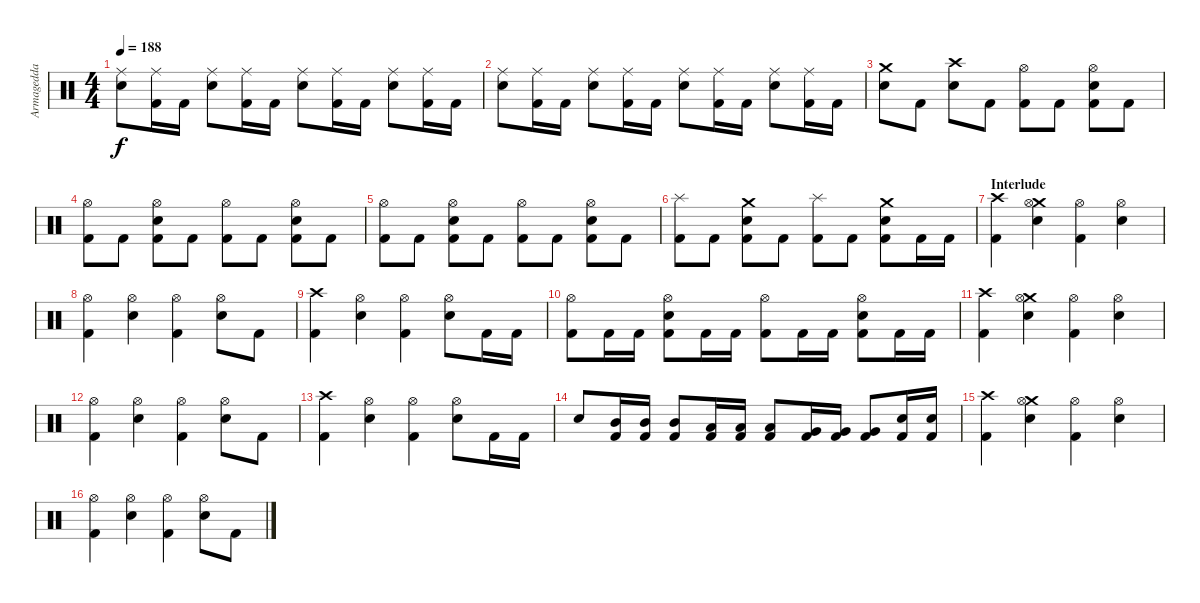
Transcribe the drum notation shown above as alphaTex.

\track ("Armagedda" "Armagedda") {instrument percussion}
\staff {score}
\articulation defaults
\ts (4 4)
\tempo 188
\clef neutral
\ks c
("Ride (middle)" "Electric Snare (hit)").8{dy f} ("Ride (middle)" "Kick (hit) 2").16 "Kick (hit) 2".16 ("Ride (middle)" "Electric Snare (hit)").8 ("Ride (middle)" "Kick (hit) 2").16 "Kick (hit) 2".16 ("Ride (middle)" "Electric Snare (hit)").8 ("Ride (middle)" "Kick (hit) 2").16 "Kick (hit) 2".16 ("Ride (middle)" "Electric Snare (hit)").8 ("Ride (middle)" "Kick (hit) 2").16 "Kick (hit) 2".16 |
("Ride (middle)" "Electric Snare (hit)").8 ("Ride (middle)" "Kick (hit) 2").16 "Kick (hit) 2".16 ("Ride (middle)" "Electric Snare (hit)").8 ("Ride (middle)" "Kick (hit) 2").16 "Kick (hit) 2".16 ("Ride (middle)" "Electric Snare (hit)").8 ("Ride (middle)" "Kick (hit) 2").16 "Kick (hit) 2".16 ("Ride (middle)" "Electric Snare (hit)").8 ("Ride (middle)" "Kick (hit) 2").16 "Kick (hit) 2".16 |
("Crash medium (hit)" "Electric Snare (hit)").8 "Kick (hit) 2".8 ("Crash high (hit)" "Electric Snare (hit)").8 "Kick (hit) 2".8 ("Hi-Hat (open)" "Kick (hit) 2").8 "Kick (hit) 2".8 ("Hi-Hat (open)" "Electric Snare (hit)" "Kick (hit) 2").8 "Kick (hit) 2".8 |
("Hi-Hat (open)" "Kick (hit) 2").8 "Kick (hit) 2".8 ("Hi-Hat (open)" "Electric Snare (hit)" "Kick (hit) 2").8 "Kick (hit) 2".8 ("Hi-Hat (open)" "Kick (hit) 2").8 "Kick (hit) 2".8 ("Hi-Hat (open)" "Electric Snare (hit)" "Kick (hit) 2").8 "Kick (hit) 2".8 |
("Hi-Hat (open)" "Kick (hit) 2").8 "Kick (hit) 2".8 ("Hi-Hat (open)" "Electric Snare (hit)" "Kick (hit) 2").8 "Kick (hit) 2".8 ("Hi-Hat (open)" "Kick (hit) 2").8 "Kick (hit) 2".8 ("Hi-Hat (open)" "Electric Snare (hit)" "Kick (hit) 2").8 "Kick (hit) 2".8 |
("Splash (hit)" "Kick (hit) 2").8 "Kick (hit) 2".8 ("Crash medium (hit)" "Electric Snare (hit)" "Kick (hit) 2").8 "Kick (hit) 2".8 ("Splash (hit)" "Kick (hit) 2").8 "Kick (hit) 2".8 ("Crash medium (hit)" "Electric Snare (hit)" "Kick (hit) 2").8 "Kick (hit) 2".16 "Kick (hit) 2".16 |
\section ("" "Interlude")
("Crash high (hit)" "Kick (hit) 2").4 ("Crash medium (hit)" "Hi-Hat (open)" "Electric Snare (hit)").4 ("Hi-Hat (open)" "Kick (hit) 2").4 ("Hi-Hat (open)" "Electric Snare (hit)").4 |
("Hi-Hat (open)" "Kick (hit) 2").4 ("Hi-Hat (open)" "Electric Snare (hit)").4 ("Hi-Hat (open)" "Kick (hit) 2").4 ("Hi-Hat (open)" "Electric Snare (hit)").8 "Kick (hit) 2".8 |
("Crash high (hit)" "Kick (hit) 2").4 ("Hi-Hat (open)" "Electric Snare (hit)").4 ("Hi-Hat (open)" "Kick (hit) 2").4 ("Hi-Hat (open)" "Electric Snare (hit)").8 "Kick (hit) 2".16 "Kick (hit) 2".16 |
("Hi-Hat (open)" "Kick (hit) 2").8 "Kick (hit) 2".16 "Kick (hit) 2".16 ("Hi-Hat (open)" "Electric Snare (hit)" "Kick (hit) 2").8 "Kick (hit) 2".16 "Kick (hit) 2".16 ("Hi-Hat (open)" "Kick (hit) 2").8 "Kick (hit) 2".16 "Kick (hit) 2".16 ("Hi-Hat (open)" "Electric Snare (hit)" "Kick (hit) 2").8 "Kick (hit) 2".16 "Kick (hit) 2".16 |
("Crash high (hit)" "Kick (hit) 2").4 ("Crash medium (hit)" "Hi-Hat (open)" "Electric Snare (hit)").4 ("Hi-Hat (open)" "Kick (hit) 2").4 ("Hi-Hat (open)" "Electric Snare (hit)").4 |
("Hi-Hat (open)" "Kick (hit) 2").4 ("Hi-Hat (open)" "Electric Snare (hit)").4 ("Hi-Hat (open)" "Kick (hit) 2").4 ("Hi-Hat (open)" "Electric Snare (hit)").8 "Kick (hit) 2".8 |
("Crash high (hit)" "Kick (hit) 2").4 ("Hi-Hat (open)" "Electric Snare (hit)").4 ("Hi-Hat (open)" "Kick (hit) 2").4 ("Hi-Hat (open)" "Electric Snare (hit)").8 "Kick (hit) 2".16 "Kick (hit) 2".16 |
"Electric Snare (hit)".8 ("Mid Tom (hit)" "Kick (hit) 2").16 ("Mid Tom (hit)" "Kick (hit) 2").16 ("Mid Tom (hit)" "Kick (hit) 2").8 ("Low Tom (hit)" "Kick (hit) 2").16 ("Low Tom (hit)" "Kick (hit) 2").16 ("Low Tom (hit)" "Kick (hit) 2").8 ("Very Low Tom (hit)" "Kick (hit) 2").16 ("Very Low Tom (hit)" "Kick (hit) 2").16 ("Very Low Tom (hit)" "Kick (hit) 2").8 ("Electric Snare (hit)" "Kick (hit) 2").16 ("Electric Snare (hit)" "Kick (hit) 2").16 |
("Crash high (hit)" "Kick (hit) 2").4 ("Crash medium (hit)" "Hi-Hat (open)" "Electric Snare (hit)").4 ("Hi-Hat (open)" "Kick (hit) 2").4 ("Hi-Hat (open)" "Electric Snare (hit)").4 |
("Hi-Hat (open)" "Kick (hit) 2").4 ("Hi-Hat (open)" "Electric Snare (hit)").4 ("Hi-Hat (open)" "Kick (hit) 2").4 ("Hi-Hat (open)" "Electric Snare (hit)").8 "Kick (hit) 2".8
